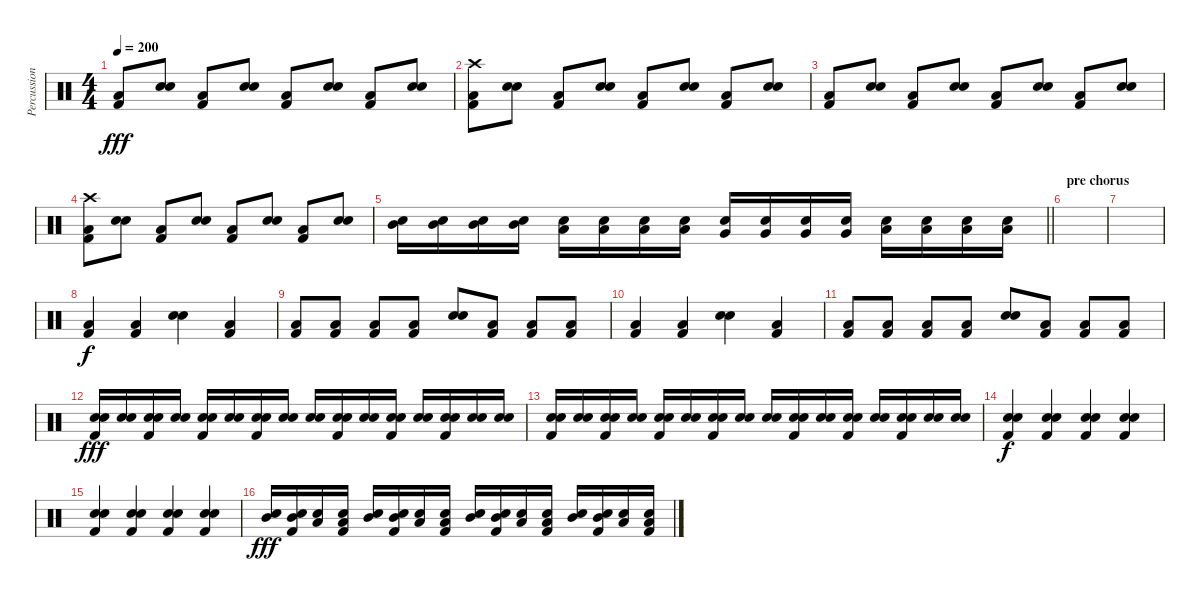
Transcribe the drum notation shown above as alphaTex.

\track ("Percussion, dave" "Percussion") {instrument percussion}
\staff {score}
\articulation defaults
\ts (4 4)
\tempo 200
\clef neutral
\ks c
("Low Tom (hit)" "Kick (hit) 2").8{dy fff} ("Electric Snare (hit)" "Snare (hit) 2").8 ("Low Tom (hit)" "Kick (hit) 2").8 ("Electric Snare (hit)" "Snare (hit) 2").8 ("Low Tom (hit)" "Kick (hit) 2").8 ("Electric Snare (hit)" "Snare (hit) 2").8 ("Low Tom (hit)" "Kick (hit) 2").8 ("Electric Snare (hit)" "Snare (hit) 2").8 |
("Crash high (hit)" "Low Tom (hit)" "Kick (hit) 2").8 ("Electric Snare (hit)" "Snare (hit) 2").8 ("Low Tom (hit)" "Kick (hit) 2").8 ("Electric Snare (hit)" "Snare (hit) 2").8 ("Low Tom (hit)" "Kick (hit) 2").8 ("Electric Snare (hit)" "Snare (hit) 2").8 ("Low Tom (hit)" "Kick (hit) 2").8 ("Electric Snare (hit)" "Snare (hit) 2").8 |
("Low Tom (hit)" "Kick (hit) 2").8 ("Electric Snare (hit)" "Snare (hit) 2").8 ("Low Tom (hit)" "Kick (hit) 2").8 ("Electric Snare (hit)" "Snare (hit) 2").8 ("Low Tom (hit)" "Kick (hit) 2").8 ("Electric Snare (hit)" "Snare (hit) 2").8 ("Low Tom (hit)" "Kick (hit) 2").8 ("Electric Snare (hit)" "Snare (hit) 2").8 |
("Crash high (hit)" "Low Tom (hit)" "Kick (hit) 2").8 ("Electric Snare (hit)" "Snare (hit) 2").8 ("Low Tom (hit)" "Kick (hit) 2").8 ("Electric Snare (hit)" "Snare (hit) 2").8 ("Low Tom (hit)" "Kick (hit) 2").8 ("Electric Snare (hit)" "Snare (hit) 2").8 ("Low Tom (hit)" "Kick (hit) 2").8 ("Electric Snare (hit)" "Snare (hit) 2").8 |
\barLineRight lightlight
("Mid Tom (hit)" "Snare (hit) 2").16 ("Mid Tom (hit)" "Snare (hit) 2").16 ("Mid Tom (hit)" "Snare (hit) 2").16 ("Mid Tom (hit)" "Snare (hit) 2").16 ("Low Tom (hit)" "Snare (hit) 2").16 ("Low Tom (hit)" "Snare (hit) 2").16 ("Low Tom (hit)" "Snare (hit) 2").16 ("Low Tom (hit)" "Snare (hit) 2").16 ("Very Low Tom (hit)" "Snare (hit) 2").16 ("Very Low Tom (hit)" "Snare (hit) 2").16 ("Very Low Tom (hit)" "Snare (hit) 2").16 ("Very Low Tom (hit)" "Snare (hit) 2").16 ("Low Floor Tom (hit)" "Snare (hit) 2").16 ("Low Floor Tom (hit)" "Snare (hit) 2").16 ("Low Floor Tom (hit)" "Snare (hit) 2").16 ("Low Floor Tom (hit)" "Snare (hit) 2").16 |
\section ("" "pre chorus")
|
|
("Low Tom (hit)" "Kick (hit) 2").4{dy f} ("Low Tom (hit)" "Kick (hit) 2").4 ("Electric Snare (hit)" "Snare (hit) 2").4 ("Low Tom (hit)" "Kick (hit) 2").4 |
("Low Tom (hit)" "Kick (hit) 2").8 ("Low Tom (hit)" "Kick (hit) 2").8 ("Low Tom (hit)" "Kick (hit) 2").8 ("Low Tom (hit)" "Kick (hit) 2").8 ("Electric Snare (hit)" "Snare (hit) 2").8 ("Low Tom (hit)" "Kick (hit) 2").8 ("Low Tom (hit)" "Kick (hit) 2").8 ("Low Tom (hit)" "Kick (hit) 2").8 |
("Low Tom (hit)" "Kick (hit) 2").4 ("Low Tom (hit)" "Kick (hit) 2").4 ("Electric Snare (hit)" "Snare (hit) 2").4 ("Low Tom (hit)" "Kick (hit) 2").4 |
("Low Tom (hit)" "Kick (hit) 2").8 ("Low Tom (hit)" "Kick (hit) 2").8 ("Low Tom (hit)" "Kick (hit) 2").8 ("Low Tom (hit)" "Kick (hit) 2").8 ("Electric Snare (hit)" "Snare (hit) 2").8 ("Low Tom (hit)" "Kick (hit) 2").8 ("Low Tom (hit)" "Kick (hit) 2").8 ("Low Tom (hit)" "Kick (hit) 2").8 |
("Electric Snare (hit)" "Snare (hit) 2" "Kick (hit) 2").16{dy fff} ("Electric Snare (hit)" "Snare (hit) 2").16 ("Electric Snare (hit)" "Snare (hit) 2" "Kick (hit) 2").16 ("Electric Snare (hit)" "Snare (hit) 2").16 ("Electric Snare (hit)" "Snare (hit) 2" "Kick (hit) 2").16 ("Electric Snare (hit)" "Snare (hit) 2").16 ("Electric Snare (hit)" "Snare (hit) 2" "Kick (hit) 2").16 ("Electric Snare (hit)" "Snare (hit) 2").16 ("Electric Snare (hit)" "Snare (hit) 2").16 ("Electric Snare (hit)" "Snare (hit) 2" "Kick (hit) 2").16 ("Electric Snare (hit)" "Snare (hit) 2").16 ("Electric Snare (hit)" "Snare (hit) 2" "Kick (hit) 2").16 ("Electric Snare (hit)" "Snare (hit) 2").16 ("Electric Snare (hit)" "Snare (hit) 2" "Kick (hit) 2").16 ("Electric Snare (hit)" "Snare (hit) 2").16 ("Electric Snare (hit)" "Snare (hit) 2").16 |
("Electric Snare (hit)" "Snare (hit) 2" "Kick (hit) 2").16 ("Electric Snare (hit)" "Snare (hit) 2").16 ("Electric Snare (hit)" "Snare (hit) 2" "Kick (hit) 2").16 ("Electric Snare (hit)" "Snare (hit) 2").16 ("Electric Snare (hit)" "Snare (hit) 2" "Kick (hit) 2").16 ("Electric Snare (hit)" "Snare (hit) 2").16 ("Electric Snare (hit)" "Snare (hit) 2" "Kick (hit) 2").16 ("Electric Snare (hit)" "Snare (hit) 2").16 ("Electric Snare (hit)" "Snare (hit) 2").16 ("Electric Snare (hit)" "Snare (hit) 2" "Kick (hit) 2").16 ("Electric Snare (hit)" "Snare (hit) 2").16 ("Electric Snare (hit)" "Snare (hit) 2" "Kick (hit) 2").16 ("Electric Snare (hit)" "Snare (hit) 2").16 ("Electric Snare (hit)" "Snare (hit) 2" "Kick (hit) 2").16 ("Electric Snare (hit)" "Snare (hit) 2").16 ("Electric Snare (hit)" "Snare (hit) 2").16 |
("Electric Snare (hit)" "Snare (hit) 2" "Kick (hit) 2").4{dy f} ("Electric Snare (hit)" "Snare (hit) 2" "Kick (hit) 2").4 ("Electric Snare (hit)" "Snare (hit) 2" "Kick (hit) 2").4 ("Electric Snare (hit)" "Snare (hit) 2" "Kick (hit) 2").4 |
("Electric Snare (hit)" "Snare (hit) 2" "Kick (hit) 2").4 ("Electric Snare (hit)" "Snare (hit) 2" "Kick (hit) 2").4 ("Electric Snare (hit)" "Snare (hit) 2" "Kick (hit) 2").4 ("Electric Snare (hit)" "Snare (hit) 2" "Kick (hit) 2").4 |
("Mid Tom (hit)" "Electric Snare (hit)").16{dy fff} ("Mid Tom (hit)" "Electric Snare (hit)" "Kick (hit) 2").16 ("Low Tom (hit)" "Electric Snare (hit)").16 ("Low Tom (hit)" "Electric Snare (hit)" "Kick (hit) 2").16 ("Mid Tom (hit)" "Electric Snare (hit)").16 ("Mid Tom (hit)" "Electric Snare (hit)" "Kick (hit) 2").16 ("Low Tom (hit)" "Electric Snare (hit)").16 ("Low Tom (hit)" "Electric Snare (hit)" "Kick (hit) 2").16 ("Mid Tom (hit)" "Electric Snare (hit)").16 ("Mid Tom (hit)" "Electric Snare (hit)" "Kick (hit) 2").16 ("Low Tom (hit)" "Electric Snare (hit)").16 ("Low Tom (hit)" "Electric Snare (hit)" "Kick (hit) 2").16 ("Mid Tom (hit)" "Electric Snare (hit)").16 ("Mid Tom (hit)" "Electric Snare (hit)" "Kick (hit) 2").16 ("Low Tom (hit)" "Electric Snare (hit)").16 ("Low Tom (hit)" "Electric Snare (hit)" "Kick (hit) 2").16
